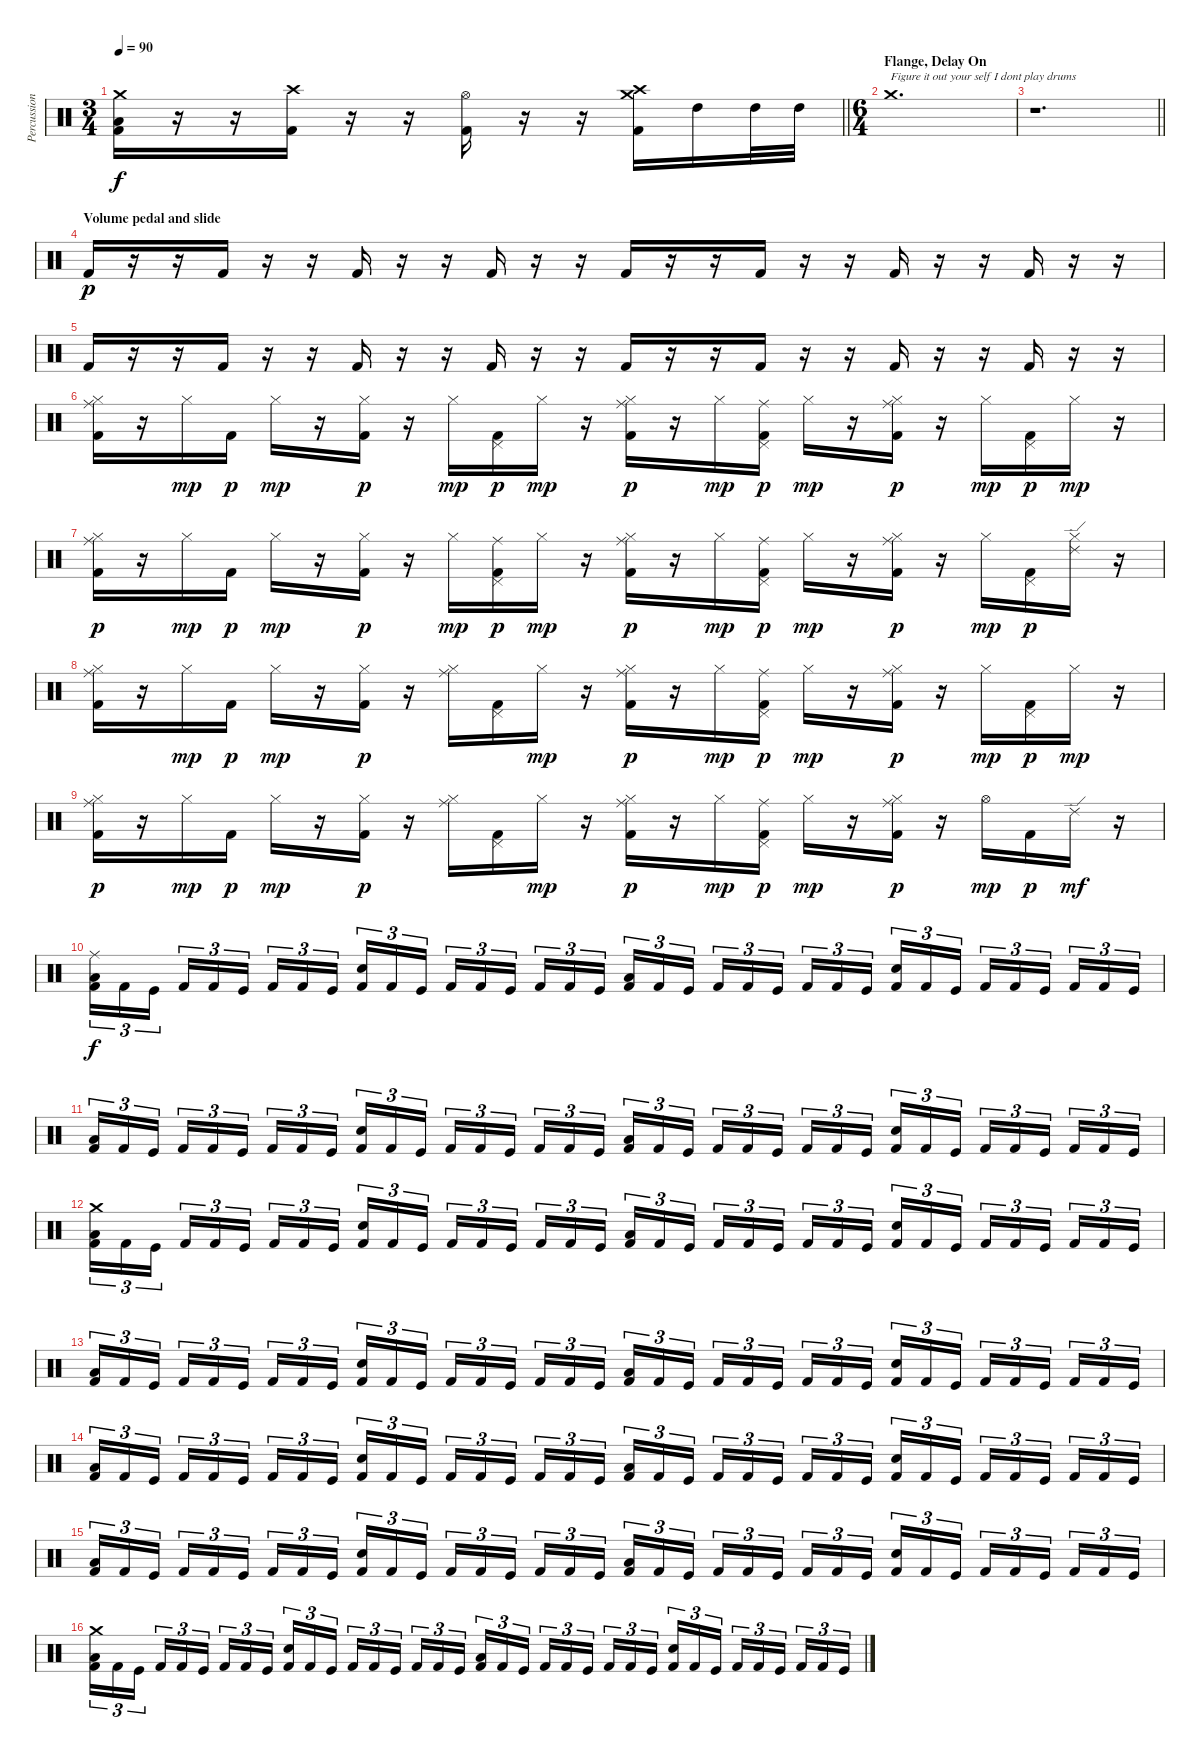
\track ("Percussion" "Percussion") {instrument percussion}
\staff {score}
\articulation defaults
\ts (3 4)
\tempo 90
\clef neutral
\barLineRight lightlight
\ks c
("Crash medium (hit)" "Low Floor Tom (hit)" "Kick (hit) 2").16{dy f} r.16 r.16 ("Crash high (hit)" "Kick (hit) 2").16 r.16 r.16 ("Hi-Hat (open)" "Kick (hit) 2").16 r.16 r.16 ("Crash medium (hit)" "Crash high (hit)" "Kick (hit) 2").16 "High Tom (hit)".16 "High Tom (hit)".32 "High Tom (hit)".32 |
\ts (6 4)
\section ("" "Flange, Delay On")
"Crash medium (hit)".1{d txt "Figure it out your self I dont play drums"} |
\barLineRight lightlight
r.1{d} |
\section ("" "Volume pedal and slide")
"Kick (hit) 2".16{dy p} r.16 r.16 "Kick (hit) 2".16 r.16 r.16 "Kick (hit) 2".16 r.16 r.16 "Kick (hit) 2".16 r.16 r.16 "Kick (hit) 2".16 r.16 r.16 "Kick (hit) 2".16 r.16 r.16 "Kick (hit) 2".16 r.16 r.16 "Kick (hit) 2".16 r.16 r.16 |
"Kick (hit) 2".16 r.16 r.16 "Kick (hit) 2".16 r.16 r.16 "Kick (hit) 2".16 r.16 r.16 "Kick (hit) 2".16 r.16 r.16 "Kick (hit) 2".16 r.16 r.16 "Kick (hit) 2".16 r.16 r.16 "Kick (hit) 2".16 r.16 r.16 "Kick (hit) 2".16 r.16 r.16 |
("Hi-Hat (closed)" "Ride (middle)" "Kick (hit) 2").16 r.16 "Hi-Hat (closed)".16{dy mp} "Kick (hit) 2".16{dy p} "Hi-Hat (closed)".16{dy mp} r.16 ("Hi-Hat (closed)" "Kick (hit) 2").16{dy p} r.16 "Hi-Hat (closed)".16{dy mp} ("Pedal Hi-Hat (hit)" "Kick (hit) 2").16{dy p} "Hi-Hat (closed)".16{dy mp} r.16 ("Hi-Hat (closed)" "Ride (middle)" "Kick (hit) 2").16{dy p} r.16 "Hi-Hat (closed)".16{dy mp} ("Pedal Hi-Hat (hit)" "Ride (middle)" "Kick (hit) 2").16{dy p} "Hi-Hat (closed)".16{dy mp} r.16 ("Hi-Hat (closed)" "Ride (middle)" "Kick (hit) 2").16{dy p} r.16 "Hi-Hat (closed)".16{dy mp} ("Pedal Hi-Hat (hit)" "Kick (hit) 2").16{dy p} "Hi-Hat (closed)".16{dy mp} r.16 |
("Hi-Hat (closed)" "Ride (middle)" "Kick (hit) 2").16{dy p} r.16 "Hi-Hat (closed)".16{dy mp} "Kick (hit) 2".16{dy p} "Hi-Hat (closed)".16{dy mp} r.16 ("Hi-Hat (closed)" "Kick (hit) 2").16{dy p} r.16 "Hi-Hat (closed)".16{dy mp} ("Pedal Hi-Hat (hit)" "Ride (middle)" "Kick (hit) 2").16{dy p} "Hi-Hat (closed)".16{dy mp} r.16 ("Hi-Hat (closed)" "Ride (middle)" "Kick (hit) 2").16{dy p} r.16 "Hi-Hat (closed)".16{dy mp} ("Pedal Hi-Hat (hit)" "Ride (middle)" "Kick (hit) 2").16{dy p} "Hi-Hat (closed)".16{dy mp} r.16 ("Hi-Hat (closed)" "Ride (middle)" "Kick (hit) 2").16{dy p} r.16 "Hi-Hat (closed)".16{dy mp} ("Pedal Hi-Hat (hit)" "Kick (hit) 2").16{dy p} ("Hi-Hat (closed)" "Ride (edge) 2").16 r.16 |
("Hi-Hat (closed)" "Ride (middle)" "Kick (hit) 2").16 r.16 "Hi-Hat (closed)".16{dy mp} "Kick (hit) 2".16{dy p} "Hi-Hat (closed)".16{dy mp} r.16 ("Hi-Hat (closed)" "Kick (hit) 2").16{dy p} r.16 ("Hi-Hat (closed)" "Ride (middle)").16 ("Pedal Hi-Hat (hit)" "Kick (hit) 2").16 "Hi-Hat (closed)".16{dy mp} r.16 ("Hi-Hat (closed)" "Ride (middle)" "Kick (hit) 2").16{dy p} r.16 "Hi-Hat (closed)".16{dy mp} ("Pedal Hi-Hat (hit)" "Ride (middle)" "Kick (hit) 2").16{dy p} "Hi-Hat (closed)".16{dy mp} r.16 ("Hi-Hat (closed)" "Ride (middle)" "Kick (hit) 2").16{dy p} r.16 "Hi-Hat (closed)".16{dy mp} ("Pedal Hi-Hat (hit)" "Kick (hit) 2").16{dy p} "Hi-Hat (closed)".16{dy mp} r.16 |
("Hi-Hat (closed)" "Ride (middle)" "Kick (hit) 2").16{dy p} r.16 "Hi-Hat (closed)".16{dy mp} "Kick (hit) 2".16{dy p} "Hi-Hat (closed)".16{dy mp} r.16 ("Hi-Hat (closed)" "Kick (hit) 2").16{dy p} r.16 ("Hi-Hat (closed)" "Ride (middle)").16 ("Pedal Hi-Hat (hit)" "Kick (hit) 2").16 "Hi-Hat (closed)".16{dy mp} r.16 ("Hi-Hat (closed)" "Ride (middle)" "Kick (hit) 2").16{dy p} r.16 "Hi-Hat (closed)".16{dy mp} ("Pedal Hi-Hat (hit)" "Ride (middle)" "Kick (hit) 2").16{dy p} "Hi-Hat (closed)".16{dy mp} r.16 ("Hi-Hat (closed)" "Ride (middle)" "Kick (hit) 2").16{dy p} r.16 "Hi-Hat (open)".16{dy mp} "Kick (hit) 2".16{dy p} "Ride (edge) 2".16{dy mf} r.16 |
("Ride (middle)" "Low Floor Tom (hit)" "Kick (hit) 2").16{tu (3 2) dy f} "Kick (hit) 2".16{tu (3 2)} "Kick (hit)".16{tu (3 2)} "Kick (hit) 2".16{tu (3 2)} "Kick (hit) 2".16{tu (3 2)} "Kick (hit)".16{tu (3 2)} "Kick (hit) 2".16{tu (3 2)} "Kick (hit) 2".16{tu (3 2)} "Kick (hit)".16{tu (3 2)} ("Electric Snare (hit)" "Kick (hit) 2").16{tu (3 2)} "Kick (hit) 2".16{tu (3 2)} "Kick (hit)".16{tu (3 2)} "Kick (hit) 2".16{tu (3 2)} "Kick (hit) 2".16{tu (3 2)} "Kick (hit)".16{tu (3 2)} "Kick (hit) 2".16{tu (3 2)} "Kick (hit) 2".16{tu (3 2)} "Kick (hit)".16{tu (3 2)} ("Low Floor Tom (hit)" "Kick (hit) 2").16{tu (3 2)} "Kick (hit) 2".16{tu (3 2)} "Kick (hit)".16{tu (3 2)} "Kick (hit) 2".16{tu (3 2)} "Kick (hit) 2".16{tu (3 2)} "Kick (hit)".16{tu (3 2)} "Kick (hit) 2".16{tu (3 2)} "Kick (hit) 2".16{tu (3 2)} "Kick (hit)".16{tu (3 2)} ("Electric Snare (hit)" "Kick (hit) 2").16{tu (3 2)} "Kick (hit) 2".16{tu (3 2)} "Kick (hit)".16{tu (3 2)} "Kick (hit) 2".16{tu (3 2)} "Kick (hit) 2".16{tu (3 2)} "Kick (hit)".16{tu (3 2)} "Kick (hit) 2".16{tu (3 2)} "Kick (hit) 2".16{tu (3 2)} "Kick (hit)".16{tu (3 2)} |
("Low Floor Tom (hit)" "Kick (hit) 2").16{tu (3 2)} "Kick (hit) 2".16{tu (3 2)} "Kick (hit)".16{tu (3 2)} "Kick (hit) 2".16{tu (3 2)} "Kick (hit) 2".16{tu (3 2)} "Kick (hit)".16{tu (3 2)} "Kick (hit) 2".16{tu (3 2)} "Kick (hit) 2".16{tu (3 2)} "Kick (hit)".16{tu (3 2)} ("Electric Snare (hit)" "Kick (hit) 2").16{tu (3 2)} "Kick (hit) 2".16{tu (3 2)} "Kick (hit)".16{tu (3 2)} "Kick (hit) 2".16{tu (3 2)} "Kick (hit) 2".16{tu (3 2)} "Kick (hit)".16{tu (3 2)} "Kick (hit) 2".16{tu (3 2)} "Kick (hit) 2".16{tu (3 2)} "Kick (hit)".16{tu (3 2)} ("Low Floor Tom (hit)" "Kick (hit) 2").16{tu (3 2)} "Kick (hit) 2".16{tu (3 2)} "Kick (hit)".16{tu (3 2)} "Kick (hit) 2".16{tu (3 2)} "Kick (hit) 2".16{tu (3 2)} "Kick (hit)".16{tu (3 2)} "Kick (hit) 2".16{tu (3 2)} "Kick (hit) 2".16{tu (3 2)} "Kick (hit)".16{tu (3 2)} ("Electric Snare (hit)" "Kick (hit) 2").16{tu (3 2)} "Kick (hit) 2".16{tu (3 2)} "Kick (hit)".16{tu (3 2)} "Kick (hit) 2".16{tu (3 2)} "Kick (hit) 2".16{tu (3 2)} "Kick (hit)".16{tu (3 2)} "Kick (hit) 2".16{tu (3 2)} "Kick (hit) 2".16{tu (3 2)} "Kick (hit)".16{tu (3 2)} |
("Crash medium (hit)" "Low Floor Tom (hit)" "Kick (hit) 2").16{tu (3 2)} "Kick (hit) 2".16{tu (3 2)} "Kick (hit)".16{tu (3 2)} "Kick (hit) 2".16{tu (3 2)} "Kick (hit) 2".16{tu (3 2)} "Kick (hit)".16{tu (3 2)} "Kick (hit) 2".16{tu (3 2)} "Kick (hit) 2".16{tu (3 2)} "Kick (hit)".16{tu (3 2)} ("Electric Snare (hit)" "Kick (hit) 2").16{tu (3 2)} "Kick (hit) 2".16{tu (3 2)} "Kick (hit)".16{tu (3 2)} "Kick (hit) 2".16{tu (3 2)} "Kick (hit) 2".16{tu (3 2)} "Kick (hit)".16{tu (3 2)} "Kick (hit) 2".16{tu (3 2)} "Kick (hit) 2".16{tu (3 2)} "Kick (hit)".16{tu (3 2)} ("Low Floor Tom (hit)" "Kick (hit) 2").16{tu (3 2)} "Kick (hit) 2".16{tu (3 2)} "Kick (hit)".16{tu (3 2)} "Kick (hit) 2".16{tu (3 2)} "Kick (hit) 2".16{tu (3 2)} "Kick (hit)".16{tu (3 2)} "Kick (hit) 2".16{tu (3 2)} "Kick (hit) 2".16{tu (3 2)} "Kick (hit)".16{tu (3 2)} ("Electric Snare (hit)" "Kick (hit) 2").16{tu (3 2)} "Kick (hit) 2".16{tu (3 2)} "Kick (hit)".16{tu (3 2)} "Kick (hit) 2".16{tu (3 2)} "Kick (hit) 2".16{tu (3 2)} "Kick (hit)".16{tu (3 2)} "Kick (hit) 2".16{tu (3 2)} "Kick (hit) 2".16{tu (3 2)} "Kick (hit)".16{tu (3 2)} |
("Low Floor Tom (hit)" "Kick (hit) 2").16{tu (3 2)} "Kick (hit) 2".16{tu (3 2)} "Kick (hit)".16{tu (3 2)} "Kick (hit) 2".16{tu (3 2)} "Kick (hit) 2".16{tu (3 2)} "Kick (hit)".16{tu (3 2)} "Kick (hit) 2".16{tu (3 2)} "Kick (hit) 2".16{tu (3 2)} "Kick (hit)".16{tu (3 2)} ("Electric Snare (hit)" "Kick (hit) 2").16{tu (3 2)} "Kick (hit) 2".16{tu (3 2)} "Kick (hit)".16{tu (3 2)} "Kick (hit) 2".16{tu (3 2)} "Kick (hit) 2".16{tu (3 2)} "Kick (hit)".16{tu (3 2)} "Kick (hit) 2".16{tu (3 2)} "Kick (hit) 2".16{tu (3 2)} "Kick (hit)".16{tu (3 2)} ("Low Floor Tom (hit)" "Kick (hit) 2").16{tu (3 2)} "Kick (hit) 2".16{tu (3 2)} "Kick (hit)".16{tu (3 2)} "Kick (hit) 2".16{tu (3 2)} "Kick (hit) 2".16{tu (3 2)} "Kick (hit)".16{tu (3 2)} "Kick (hit) 2".16{tu (3 2)} "Kick (hit) 2".16{tu (3 2)} "Kick (hit)".16{tu (3 2)} ("Electric Snare (hit)" "Kick (hit) 2").16{tu (3 2)} "Kick (hit) 2".16{tu (3 2)} "Kick (hit)".16{tu (3 2)} "Kick (hit) 2".16{tu (3 2)} "Kick (hit) 2".16{tu (3 2)} "Kick (hit)".16{tu (3 2)} "Kick (hit) 2".16{tu (3 2)} "Kick (hit) 2".16{tu (3 2)} "Kick (hit)".16{tu (3 2)} |
("Low Floor Tom (hit)" "Kick (hit) 2").16{tu (3 2)} "Kick (hit) 2".16{tu (3 2)} "Kick (hit)".16{tu (3 2)} "Kick (hit) 2".16{tu (3 2)} "Kick (hit) 2".16{tu (3 2)} "Kick (hit)".16{tu (3 2)} "Kick (hit) 2".16{tu (3 2)} "Kick (hit) 2".16{tu (3 2)} "Kick (hit)".16{tu (3 2)} ("Electric Snare (hit)" "Kick (hit) 2").16{tu (3 2)} "Kick (hit) 2".16{tu (3 2)} "Kick (hit)".16{tu (3 2)} "Kick (hit) 2".16{tu (3 2)} "Kick (hit) 2".16{tu (3 2)} "Kick (hit)".16{tu (3 2)} "Kick (hit) 2".16{tu (3 2)} "Kick (hit) 2".16{tu (3 2)} "Kick (hit)".16{tu (3 2)} ("Low Floor Tom (hit)" "Kick (hit) 2").16{tu (3 2)} "Kick (hit) 2".16{tu (3 2)} "Kick (hit)".16{tu (3 2)} "Kick (hit) 2".16{tu (3 2)} "Kick (hit) 2".16{tu (3 2)} "Kick (hit)".16{tu (3 2)} "Kick (hit) 2".16{tu (3 2)} "Kick (hit) 2".16{tu (3 2)} "Kick (hit)".16{tu (3 2)} ("Electric Snare (hit)" "Kick (hit) 2").16{tu (3 2)} "Kick (hit) 2".16{tu (3 2)} "Kick (hit)".16{tu (3 2)} "Kick (hit) 2".16{tu (3 2)} "Kick (hit) 2".16{tu (3 2)} "Kick (hit)".16{tu (3 2)} "Kick (hit) 2".16{tu (3 2)} "Kick (hit) 2".16{tu (3 2)} "Kick (hit)".16{tu (3 2)} |
("Low Floor Tom (hit)" "Kick (hit) 2").16{tu (3 2)} "Kick (hit) 2".16{tu (3 2)} "Kick (hit)".16{tu (3 2)} "Kick (hit) 2".16{tu (3 2)} "Kick (hit) 2".16{tu (3 2)} "Kick (hit)".16{tu (3 2)} "Kick (hit) 2".16{tu (3 2)} "Kick (hit) 2".16{tu (3 2)} "Kick (hit)".16{tu (3 2)} ("Electric Snare (hit)" "Kick (hit) 2").16{tu (3 2)} "Kick (hit) 2".16{tu (3 2)} "Kick (hit)".16{tu (3 2)} "Kick (hit) 2".16{tu (3 2)} "Kick (hit) 2".16{tu (3 2)} "Kick (hit)".16{tu (3 2)} "Kick (hit) 2".16{tu (3 2)} "Kick (hit) 2".16{tu (3 2)} "Kick (hit)".16{tu (3 2)} ("Low Floor Tom (hit)" "Kick (hit) 2").16{tu (3 2)} "Kick (hit) 2".16{tu (3 2)} "Kick (hit)".16{tu (3 2)} "Kick (hit) 2".16{tu (3 2)} "Kick (hit) 2".16{tu (3 2)} "Kick (hit)".16{tu (3 2)} "Kick (hit) 2".16{tu (3 2)} "Kick (hit) 2".16{tu (3 2)} "Kick (hit)".16{tu (3 2)} ("Electric Snare (hit)" "Kick (hit) 2").16{tu (3 2)} "Kick (hit) 2".16{tu (3 2)} "Kick (hit)".16{tu (3 2)} "Kick (hit) 2".16{tu (3 2)} "Kick (hit) 2".16{tu (3 2)} "Kick (hit)".16{tu (3 2)} "Kick (hit) 2".16{tu (3 2)} "Kick (hit) 2".16{tu (3 2)} "Kick (hit)".16{tu (3 2)} |
("Crash medium (hit)" "Low Floor Tom (hit)" "Kick (hit) 2").16{tu (3 2)} "Kick (hit) 2".16{tu (3 2)} "Kick (hit)".16{tu (3 2)} "Kick (hit) 2".16{tu (3 2)} "Kick (hit) 2".16{tu (3 2)} "Kick (hit)".16{tu (3 2)} "Kick (hit) 2".16{tu (3 2)} "Kick (hit) 2".16{tu (3 2)} "Kick (hit)".16{tu (3 2)} ("Electric Snare (hit)" "Kick (hit) 2").16{tu (3 2)} "Kick (hit) 2".16{tu (3 2)} "Kick (hit)".16{tu (3 2)} "Kick (hit) 2".16{tu (3 2)} "Kick (hit) 2".16{tu (3 2)} "Kick (hit)".16{tu (3 2)} "Kick (hit) 2".16{tu (3 2)} "Kick (hit) 2".16{tu (3 2)} "Kick (hit)".16{tu (3 2)} ("Low Floor Tom (hit)" "Kick (hit) 2").16{tu (3 2)} "Kick (hit) 2".16{tu (3 2)} "Kick (hit)".16{tu (3 2)} "Kick (hit) 2".16{tu (3 2)} "Kick (hit) 2".16{tu (3 2)} "Kick (hit)".16{tu (3 2)} "Kick (hit) 2".16{tu (3 2)} "Kick (hit) 2".16{tu (3 2)} "Kick (hit)".16{tu (3 2)} ("Electric Snare (hit)" "Kick (hit) 2").16{tu (3 2)} "Kick (hit) 2".16{tu (3 2)} "Kick (hit)".16{tu (3 2)} "Kick (hit) 2".16{tu (3 2)} "Kick (hit) 2".16{tu (3 2)} "Kick (hit)".16{tu (3 2)} "Kick (hit) 2".16{tu (3 2)} "Kick (hit) 2".16{tu (3 2)} "Kick (hit)".16{tu (3 2)}
